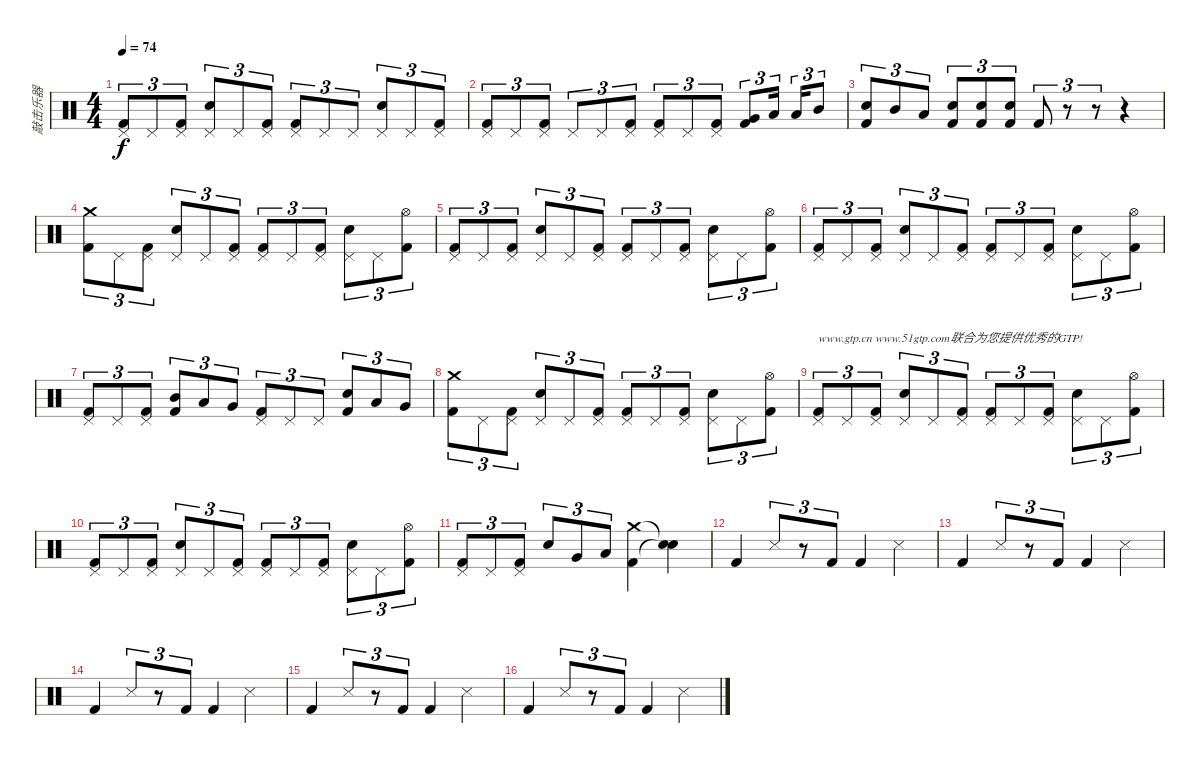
\track ("敲击乐器" "敲击乐器") {instrument percussion}
\staff {score}
\articulation defaults
\ts (4 4)
\tempo 74
\clef neutral
\ks c
("Pedal Hi-Hat (hit)" "Kick (hit) 2").8{tu (3 2) dy f} "Pedal Hi-Hat (hit)".8{tu (3 2)} ("Pedal Hi-Hat (hit)" "Kick (hit) 2").8{tu (3 2)} ("Electric Snare (hit)" "Pedal Hi-Hat (hit)").8{tu (3 2)} "Pedal Hi-Hat (hit)".8{tu (3 2)} ("Pedal Hi-Hat (hit)" "Kick (hit) 2").8{tu (3 2)} ("Pedal Hi-Hat (hit)" "Kick (hit) 2").8{tu (3 2)} "Pedal Hi-Hat (hit)".8{tu (3 2)} "Pedal Hi-Hat (hit)".8{tu (3 2)} ("Electric Snare (hit)" "Pedal Hi-Hat (hit)").8{tu (3 2)} "Pedal Hi-Hat (hit)".8{tu (3 2)} ("Pedal Hi-Hat (hit)" "Kick (hit) 2").8{tu (3 2)} |
("Pedal Hi-Hat (hit)" "Kick (hit) 2").8{tu (3 2)} "Pedal Hi-Hat (hit)".8{tu (3 2)} ("Pedal Hi-Hat (hit)" "Kick (hit) 2").8{tu (3 2)} "Pedal Hi-Hat (hit)".8{tu (3 2)} "Pedal Hi-Hat (hit)".8{tu (3 2)} ("Pedal Hi-Hat (hit)" "Kick (hit) 2").8{tu (3 2)} ("Pedal Hi-Hat (hit)" "Kick (hit) 2").8{tu (3 2)} "Pedal Hi-Hat (hit)".8{tu (3 2)} ("Pedal Hi-Hat (hit)" "Kick (hit) 2").8{tu (3 2)} ("Very Low Tom (hit)" "Kick (hit) 2").8{tu (3 2)} "Low Tom (hit)".16{tu (3 2) beam splitsecondary} "Low Tom (hit)".16{tu (3 2)} "Mid Tom (hit)".8{tu (3 2)} |
("Electric Snare (hit)" "Kick (hit) 2").8{tu (3 2)} "Mid Tom (hit)".8{tu (3 2)} "Low Tom (hit)".8{tu (3 2)} ("Electric Snare (hit)" "Kick (hit) 2").8{tu (3 2)} ("Electric Snare (hit)" "Kick (hit) 2").8{tu (3 2)} ("Electric Snare (hit)" "Kick (hit) 2").8{tu (3 2)} "Kick (hit) 2".8{tu (3 2)} r.8{tu (3 2)} r.8{tu (3 2)} r.4 |
("Crash medium (hit)" "Kick (hit) 2").8{tu (3 2)} "Pedal Hi-Hat (hit)".8{tu (3 2)} ("Pedal Hi-Hat (hit)" "Kick (hit) 2").8{tu (3 2)} ("Electric Snare (hit)" "Pedal Hi-Hat (hit)").8{tu (3 2)} "Pedal Hi-Hat (hit)".8{tu (3 2)} ("Pedal Hi-Hat (hit)" "Kick (hit) 2").8{tu (3 2)} ("Pedal Hi-Hat (hit)" "Kick (hit) 2").8{tu (3 2)} "Pedal Hi-Hat (hit)".8{tu (3 2)} ("Pedal Hi-Hat (hit)" "Kick (hit) 2").8{tu (3 2)} ("Electric Snare (hit)" "Pedal Hi-Hat (hit)").8{tu (3 2)} "Pedal Hi-Hat (hit)".8{tu (3 2)} ("Hi-Hat (open)" "Kick (hit) 2").8{tu (3 2)} |
("Pedal Hi-Hat (hit)" "Kick (hit) 2").8{tu (3 2)} "Pedal Hi-Hat (hit)".8{tu (3 2)} ("Pedal Hi-Hat (hit)" "Kick (hit) 2").8{tu (3 2)} ("Electric Snare (hit)" "Pedal Hi-Hat (hit)").8{tu (3 2)} "Pedal Hi-Hat (hit)".8{tu (3 2)} ("Pedal Hi-Hat (hit)" "Kick (hit) 2").8{tu (3 2)} ("Pedal Hi-Hat (hit)" "Kick (hit) 2").8{tu (3 2)} "Pedal Hi-Hat (hit)".8{tu (3 2)} ("Pedal Hi-Hat (hit)" "Kick (hit) 2").8{tu (3 2)} ("Electric Snare (hit)" "Pedal Hi-Hat (hit)").8{tu (3 2)} "Pedal Hi-Hat (hit)".8{tu (3 2)} ("Hi-Hat (open)" "Kick (hit) 2").8{tu (3 2)} |
("Pedal Hi-Hat (hit)" "Kick (hit) 2").8{tu (3 2)} "Pedal Hi-Hat (hit)".8{tu (3 2)} ("Pedal Hi-Hat (hit)" "Kick (hit) 2").8{tu (3 2)} ("Electric Snare (hit)" "Pedal Hi-Hat (hit)").8{tu (3 2)} "Pedal Hi-Hat (hit)".8{tu (3 2)} ("Pedal Hi-Hat (hit)" "Kick (hit) 2").8{tu (3 2)} ("Pedal Hi-Hat (hit)" "Kick (hit) 2").8{tu (3 2)} "Pedal Hi-Hat (hit)".8{tu (3 2)} ("Pedal Hi-Hat (hit)" "Kick (hit) 2").8{tu (3 2)} ("Electric Snare (hit)" "Pedal Hi-Hat (hit)").8{tu (3 2)} "Pedal Hi-Hat (hit)".8{tu (3 2)} ("Hi-Hat (open)" "Kick (hit) 2").8{tu (3 2)} |
("Pedal Hi-Hat (hit)" "Kick (hit) 2").8{tu (3 2)} "Pedal Hi-Hat (hit)".8{tu (3 2)} ("Pedal Hi-Hat (hit)" "Kick (hit) 2").8{tu (3 2)} ("Mid Tom (hit)" "Kick (hit) 2").8{tu (3 2)} "Low Tom (hit)".8{tu (3 2)} "Very Low Tom (hit)".8{tu (3 2)} ("Pedal Hi-Hat (hit)" "Kick (hit) 2").8{tu (3 2)} "Pedal Hi-Hat (hit)".8{tu (3 2)} "Pedal Hi-Hat (hit)".8{tu (3 2)} ("Electric Snare (hit)" "Kick (hit) 2").8{tu (3 2)} "Low Tom (hit)".8{tu (3 2)} "Very Low Tom (hit)".8{tu (3 2)} |
("Crash medium (hit)" "Kick (hit) 2").8{tu (3 2)} "Pedal Hi-Hat (hit)".8{tu (3 2)} ("Pedal Hi-Hat (hit)" "Kick (hit) 2").8{tu (3 2)} ("Electric Snare (hit)" "Pedal Hi-Hat (hit)").8{tu (3 2)} "Pedal Hi-Hat (hit)".8{tu (3 2)} ("Pedal Hi-Hat (hit)" "Kick (hit) 2").8{tu (3 2)} ("Pedal Hi-Hat (hit)" "Kick (hit) 2").8{tu (3 2)} "Pedal Hi-Hat (hit)".8{tu (3 2)} ("Pedal Hi-Hat (hit)" "Kick (hit) 2").8{tu (3 2)} ("Electric Snare (hit)" "Pedal Hi-Hat (hit)").8{tu (3 2)} "Pedal Hi-Hat (hit)".8{tu (3 2)} ("Hi-Hat (open)" "Kick (hit) 2").8{tu (3 2)} |
("Pedal Hi-Hat (hit)" "Kick (hit) 2").8{tu (3 2) txt "www.gtp.cn www.51gtp.com联合为您提供优秀的GTP!"} "Pedal Hi-Hat (hit)".8{tu (3 2)} ("Pedal Hi-Hat (hit)" "Kick (hit) 2").8{tu (3 2)} ("Electric Snare (hit)" "Pedal Hi-Hat (hit)").8{tu (3 2)} "Pedal Hi-Hat (hit)".8{tu (3 2)} ("Pedal Hi-Hat (hit)" "Kick (hit) 2").8{tu (3 2)} ("Pedal Hi-Hat (hit)" "Kick (hit) 2").8{tu (3 2)} "Pedal Hi-Hat (hit)".8{tu (3 2)} ("Pedal Hi-Hat (hit)" "Kick (hit) 2").8{tu (3 2)} ("Electric Snare (hit)" "Pedal Hi-Hat (hit)").8{tu (3 2)} "Pedal Hi-Hat (hit)".8{tu (3 2)} ("Hi-Hat (open)" "Kick (hit) 2").8{tu (3 2)} |
("Pedal Hi-Hat (hit)" "Kick (hit) 2").8{tu (3 2)} "Pedal Hi-Hat (hit)".8{tu (3 2)} ("Pedal Hi-Hat (hit)" "Kick (hit) 2").8{tu (3 2)} ("Electric Snare (hit)" "Pedal Hi-Hat (hit)").8{tu (3 2)} "Pedal Hi-Hat (hit)".8{tu (3 2)} ("Pedal Hi-Hat (hit)" "Kick (hit) 2").8{tu (3 2)} ("Pedal Hi-Hat (hit)" "Kick (hit) 2").8{tu (3 2)} "Pedal Hi-Hat (hit)".8{tu (3 2)} ("Pedal Hi-Hat (hit)" "Kick (hit) 2").8{tu (3 2)} ("Electric Snare (hit)" "Pedal Hi-Hat (hit)").8{tu (3 2)} "Pedal Hi-Hat (hit)".8{tu (3 2)} ("Hi-Hat (open)" "Kick (hit) 2").8{tu (3 2)} |
("Pedal Hi-Hat (hit)" "Kick (hit) 2").8{tu (3 2)} "Pedal Hi-Hat (hit)".8{tu (3 2)} ("Pedal Hi-Hat (hit)" "Kick (hit) 2").8{tu (3 2)} "Electric Snare (hit)".8{tu (3 2)} "Very Low Tom (hit)".8{tu (3 2)} "Low Tom (hit)".8{tu (3 2)} ("Crash medium (hit)" "Kick (hit) 2").4 ("Snare (hit)"{t} "Snare (hit)"{t}).4 |
"Kick (hit) 2".4 "Snare (side stick) 3".8{tu (3 2)} r.8{tu (3 2)} "Kick (hit) 2".8{tu (3 2)} "Kick (hit) 2".4 "Snare (side stick) 3".4 |
"Kick (hit) 2".4 "Snare (side stick) 3".8{tu (3 2)} r.8{tu (3 2)} "Kick (hit) 2".8{tu (3 2)} "Kick (hit) 2".4 "Snare (side stick) 3".4 |
"Kick (hit) 2".4 "Snare (side stick) 3".8{tu (3 2)} r.8{tu (3 2)} "Kick (hit) 2".8{tu (3 2)} "Kick (hit) 2".4 "Snare (side stick) 3".4 |
"Kick (hit) 2".4 "Snare (side stick) 3".8{tu (3 2)} r.8{tu (3 2)} "Kick (hit) 2".8{tu (3 2)} "Kick (hit) 2".4 "Snare (side stick) 3".4 |
"Kick (hit) 2".4 "Snare (side stick) 3".8{tu (3 2)} r.8{tu (3 2)} "Kick (hit) 2".8{tu (3 2)} "Kick (hit) 2".4 "Snare (side stick) 3".4
